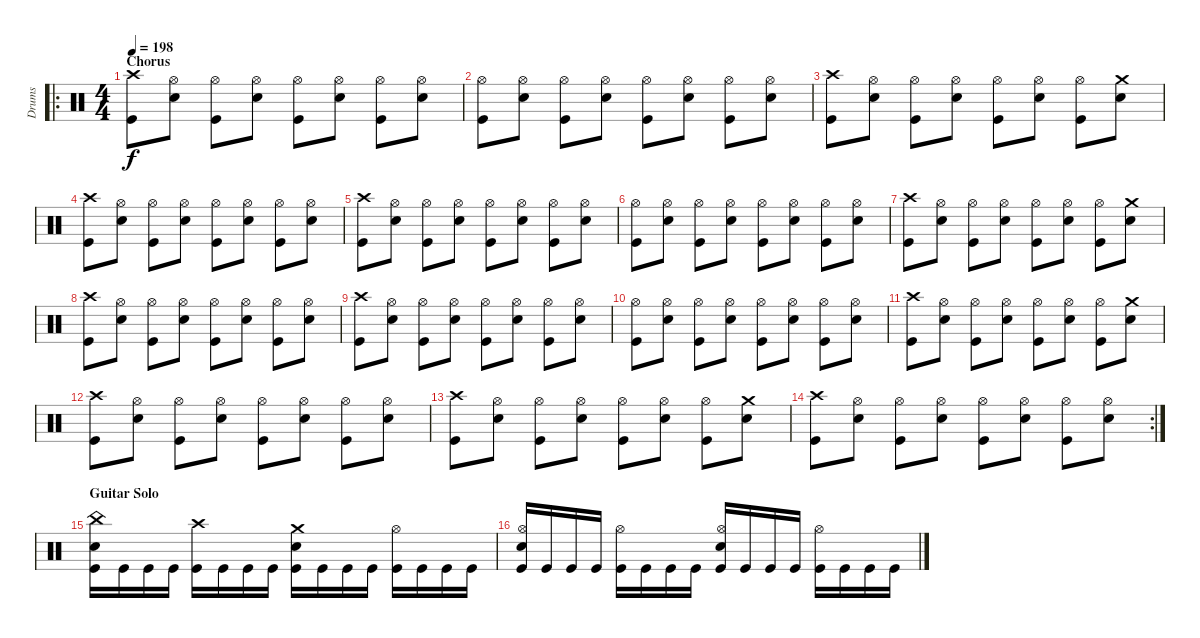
\track ("Drums" "Drums") {instrument percussion}
\staff {score}
\articulation defaults
\ro
\ts (4 4)
\section ("" "Chorus")
\tempo 198
\clef neutral
\ks c
("Crash high (hit)" "Kick (hit)").8{dy f} ("Hi-Hat (open)" "Snare (hit) 2").8 ("Hi-Hat (open)" "Kick (hit)").8 ("Hi-Hat (open)" "Snare (hit) 2").8 ("Hi-Hat (open)" "Kick (hit)").8 ("Hi-Hat (open)" "Snare (hit) 2").8 ("Hi-Hat (open)" "Kick (hit)").8 ("Hi-Hat (open)" "Snare (hit) 2").8 |
("Hi-Hat (open)" "Kick (hit)").8 ("Hi-Hat (open)" "Snare (hit) 2").8 ("Hi-Hat (open)" "Kick (hit)").8 ("Hi-Hat (open)" "Snare (hit) 2").8 ("Hi-Hat (open)" "Kick (hit)").8 ("Hi-Hat (open)" "Snare (hit) 2").8 ("Hi-Hat (open)" "Kick (hit)").8 ("Hi-Hat (open)" "Snare (hit) 2").8 |
("Crash high (hit)" "Kick (hit)").8 ("Hi-Hat (open)" "Snare (hit) 2").8 ("Hi-Hat (open)" "Kick (hit)").8 ("Hi-Hat (open)" "Snare (hit) 2").8 ("Hi-Hat (open)" "Kick (hit)").8 ("Hi-Hat (open)" "Snare (hit) 2").8 ("Hi-Hat (open)" "Kick (hit)").8 ("Crash medium (hit)" "Snare (hit) 2").8 |
("Crash high (hit)" "Kick (hit)").8 ("Hi-Hat (open)" "Snare (hit) 2").8 ("Hi-Hat (open)" "Kick (hit)").8 ("Hi-Hat (open)" "Snare (hit) 2").8 ("Hi-Hat (open)" "Kick (hit)").8 ("Hi-Hat (open)" "Snare (hit) 2").8 ("Hi-Hat (open)" "Kick (hit)").8 ("Hi-Hat (open)" "Snare (hit) 2").8 |
("Crash high (hit)" "Kick (hit)").8 ("Hi-Hat (open)" "Snare (hit) 2").8 ("Hi-Hat (open)" "Kick (hit)").8 ("Hi-Hat (open)" "Snare (hit) 2").8 ("Hi-Hat (open)" "Kick (hit)").8 ("Hi-Hat (open)" "Snare (hit) 2").8 ("Hi-Hat (open)" "Kick (hit)").8 ("Hi-Hat (open)" "Snare (hit) 2").8 |
("Hi-Hat (open)" "Kick (hit)").8 ("Hi-Hat (open)" "Snare (hit) 2").8 ("Hi-Hat (open)" "Kick (hit)").8 ("Hi-Hat (open)" "Snare (hit) 2").8 ("Hi-Hat (open)" "Kick (hit)").8 ("Hi-Hat (open)" "Snare (hit) 2").8 ("Hi-Hat (open)" "Kick (hit)").8 ("Hi-Hat (open)" "Snare (hit) 2").8 |
("Crash high (hit)" "Kick (hit)").8 ("Hi-Hat (open)" "Snare (hit) 2").8 ("Hi-Hat (open)" "Kick (hit)").8 ("Hi-Hat (open)" "Snare (hit) 2").8 ("Hi-Hat (open)" "Kick (hit)").8 ("Hi-Hat (open)" "Snare (hit) 2").8 ("Hi-Hat (open)" "Kick (hit)").8 ("Crash medium (hit)" "Snare (hit) 2").8 |
("Crash high (hit)" "Kick (hit)").8 ("Hi-Hat (open)" "Snare (hit) 2").8 ("Hi-Hat (open)" "Kick (hit)").8 ("Hi-Hat (open)" "Snare (hit) 2").8 ("Hi-Hat (open)" "Kick (hit)").8 ("Hi-Hat (open)" "Snare (hit) 2").8 ("Hi-Hat (open)" "Kick (hit)").8 ("Hi-Hat (open)" "Snare (hit) 2").8 |
("Crash high (hit)" "Kick (hit)").8 ("Hi-Hat (open)" "Snare (hit) 2").8 ("Hi-Hat (open)" "Kick (hit)").8 ("Hi-Hat (open)" "Snare (hit) 2").8 ("Hi-Hat (open)" "Kick (hit)").8 ("Hi-Hat (open)" "Snare (hit) 2").8 ("Hi-Hat (open)" "Kick (hit)").8 ("Hi-Hat (open)" "Snare (hit) 2").8 |
("Hi-Hat (open)" "Kick (hit)").8 ("Hi-Hat (open)" "Snare (hit) 2").8 ("Hi-Hat (open)" "Kick (hit)").8 ("Hi-Hat (open)" "Snare (hit) 2").8 ("Hi-Hat (open)" "Kick (hit)").8 ("Hi-Hat (open)" "Snare (hit) 2").8 ("Hi-Hat (open)" "Kick (hit)").8 ("Hi-Hat (open)" "Snare (hit) 2").8 |
("Crash high (hit)" "Kick (hit)").8 ("Hi-Hat (open)" "Snare (hit) 2").8 ("Hi-Hat (open)" "Kick (hit)").8 ("Hi-Hat (open)" "Snare (hit) 2").8 ("Hi-Hat (open)" "Kick (hit)").8 ("Hi-Hat (open)" "Snare (hit) 2").8 ("Hi-Hat (open)" "Kick (hit)").8 ("Crash medium (hit)" "Snare (hit) 2").8 |
("Crash high (hit)" "Kick (hit)").8 ("Hi-Hat (open)" "Snare (hit) 2").8 ("Hi-Hat (open)" "Kick (hit)").8 ("Hi-Hat (open)" "Snare (hit) 2").8 ("Hi-Hat (open)" "Kick (hit)").8 ("Hi-Hat (open)" "Snare (hit) 2").8 ("Hi-Hat (open)" "Kick (hit)").8 ("Hi-Hat (open)" "Snare (hit) 2").8 |
("Crash high (hit)" "Kick (hit)").8 ("Hi-Hat (open)" "Snare (hit) 2").8 ("Hi-Hat (open)" "Kick (hit)").8 ("Hi-Hat (open)" "Snare (hit) 2").8 ("Hi-Hat (open)" "Kick (hit)").8 ("Hi-Hat (open)" "Snare (hit) 2").8 ("Hi-Hat (open)" "Kick (hit)").8 ("Crash medium (hit)" "Snare (hit) 2").8 |
\rc 2
("Crash high (hit)" "Kick (hit)").8 ("Hi-Hat (open)" "Snare (hit) 2").8 ("Hi-Hat (open)" "Kick (hit)").8 ("Hi-Hat (open)" "Snare (hit) 2").8 ("Hi-Hat (open)" "Kick (hit)").8 ("Hi-Hat (open)" "Snare (hit) 2").8 ("Hi-Hat (open)" "Kick (hit)").8 ("Hi-Hat (open)" "Snare (hit) 2").8 |
\section ("" "Guitar Solo")
("China (hit)" "Snare (hit) 2" "Kick (hit)").16 "Kick (hit)".16 "Kick (hit)".16 "Kick (hit)".16 ("Crash high (hit)" "Kick (hit)").16 "Kick (hit)".16 "Kick (hit)".16 "Kick (hit)".16 ("Crash medium (hit)" "Snare (hit) 2" "Kick (hit)").16 "Kick (hit)".16 "Kick (hit)".16 "Kick (hit)".16 ("Hi-Hat (open)" "Kick (hit)").16 "Kick (hit)".16 "Kick (hit)".16 "Kick (hit)".16 |
("Hi-Hat (open)" "Snare (hit) 2" "Kick (hit)").16 "Kick (hit)".16 "Kick (hit)".16 "Kick (hit)".16 ("Hi-Hat (open)" "Kick (hit)").16 "Kick (hit)".16 "Kick (hit)".16 "Kick (hit)".16 ("Hi-Hat (open)" "Snare (hit) 2" "Kick (hit)").16 "Kick (hit)".16 "Kick (hit)".16 "Kick (hit)".16 ("Hi-Hat (open)" "Kick (hit)").16 "Kick (hit)".16 "Kick (hit)".16 "Kick (hit)".16
